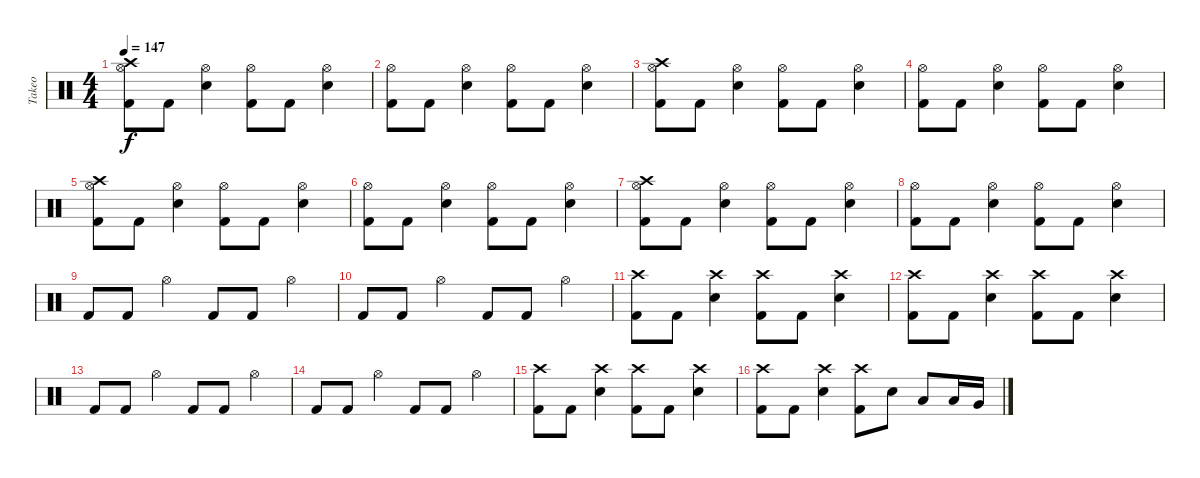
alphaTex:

\track ("Takeo" "Takeo") {instrument percussion}
\staff {score}
\articulation defaults
\ts (4 4)
\tempo 147
\clef neutral
\ks c
("Kick (hit) 2" "Hi-Hat (open)" "Crash high (hit)").8{dy f} "Kick (hit) 2".8 ("Snare (hit) 2" "Hi-Hat (open)").4 ("Kick (hit) 2" "Hi-Hat (open)").8 "Kick (hit) 2".8 ("Snare (hit) 2" "Hi-Hat (open)").4 |
("Kick (hit) 2" "Hi-Hat (open)").8 "Kick (hit) 2".8 ("Snare (hit) 2" "Hi-Hat (open)").4 ("Kick (hit) 2" "Hi-Hat (open)").8 "Kick (hit) 2".8 ("Snare (hit) 2" "Hi-Hat (open)").4 |
("Kick (hit) 2" "Hi-Hat (open)" "Crash high (hit)").8 "Kick (hit) 2".8 ("Snare (hit) 2" "Hi-Hat (open)").4 ("Kick (hit) 2" "Hi-Hat (open)").8 "Kick (hit) 2".8 ("Snare (hit) 2" "Hi-Hat (open)").4 |
("Kick (hit) 2" "Hi-Hat (open)").8 "Kick (hit) 2".8 ("Snare (hit) 2" "Hi-Hat (open)").4 ("Kick (hit) 2" "Hi-Hat (open)").8 "Kick (hit) 2".8 ("Snare (hit) 2" "Hi-Hat (open)").4 |
("Kick (hit) 2" "Hi-Hat (open)" "Crash high (hit)").8 "Kick (hit) 2".8 ("Snare (hit) 2" "Hi-Hat (open)").4 ("Kick (hit) 2" "Hi-Hat (open)").8 "Kick (hit) 2".8 ("Snare (hit) 2" "Hi-Hat (open)").4 |
("Kick (hit) 2" "Hi-Hat (open)").8 "Kick (hit) 2".8 ("Snare (hit) 2" "Hi-Hat (open)").4 ("Kick (hit) 2" "Hi-Hat (open)").8 "Kick (hit) 2".8 ("Snare (hit) 2" "Hi-Hat (open)").4 |
("Kick (hit) 2" "Hi-Hat (open)" "Crash high (hit)").8 "Kick (hit) 2".8 ("Snare (hit) 2" "Hi-Hat (open)").4 ("Kick (hit) 2" "Hi-Hat (open)").8 "Kick (hit) 2".8 ("Snare (hit) 2" "Hi-Hat (open)").4 |
("Kick (hit) 2" "Hi-Hat (open)").8 "Kick (hit) 2".8 ("Snare (hit) 2" "Hi-Hat (open)").4 ("Kick (hit) 2" "Hi-Hat (open)").8 "Kick (hit) 2".8 ("Snare (hit) 2" "Hi-Hat (open)").4 |
"Kick (hit) 2".8 "Kick (hit) 2".8 "Hi-Hat (open)".4 "Kick (hit) 2".8 "Kick (hit) 2".8 "Hi-Hat (open)".4 |
"Kick (hit) 2".8 "Kick (hit) 2".8 "Hi-Hat (open)".4 "Kick (hit) 2".8 "Kick (hit) 2".8 "Hi-Hat (open)".4 |
("Kick (hit) 2" "Crash high (hit)").8 "Kick (hit) 2".8 ("Snare (hit) 2" "Crash high (hit)").4 ("Kick (hit) 2" "Crash high (hit)").8 "Kick (hit) 2".8 ("Snare (hit) 2" "Crash high (hit)").4 |
("Kick (hit) 2" "Crash high (hit)").8 "Kick (hit) 2".8 ("Snare (hit) 2" "Crash high (hit)").4 ("Kick (hit) 2" "Crash high (hit)").8 "Kick (hit) 2".8 ("Snare (hit) 2" "Crash high (hit)").4 |
"Kick (hit) 2".8 "Kick (hit) 2".8 "Hi-Hat (open)".4 "Kick (hit) 2".8 "Kick (hit) 2".8 "Hi-Hat (open)".4 |
"Kick (hit) 2".8 "Kick (hit) 2".8 "Hi-Hat (open)".4 "Kick (hit) 2".8 "Kick (hit) 2".8 "Hi-Hat (open)".4 |
("Kick (hit) 2" "Crash high (hit)").8 "Kick (hit) 2".8 ("Snare (hit) 2" "Crash high (hit)").4 ("Kick (hit) 2" "Crash high (hit)").8 "Kick (hit) 2".8 ("Snare (hit) 2" "Crash high (hit)").4 |
("Kick (hit) 2" "Crash high (hit)").8 "Kick (hit) 2".8 ("Snare (hit) 2" "Crash high (hit)").4 ("Kick (hit) 2" "Crash high (hit)").8 "Snare (hit) 2".8 "Low Tom (hit)".8 "Low Tom (hit)".16 "Very Low Tom (hit)".16
